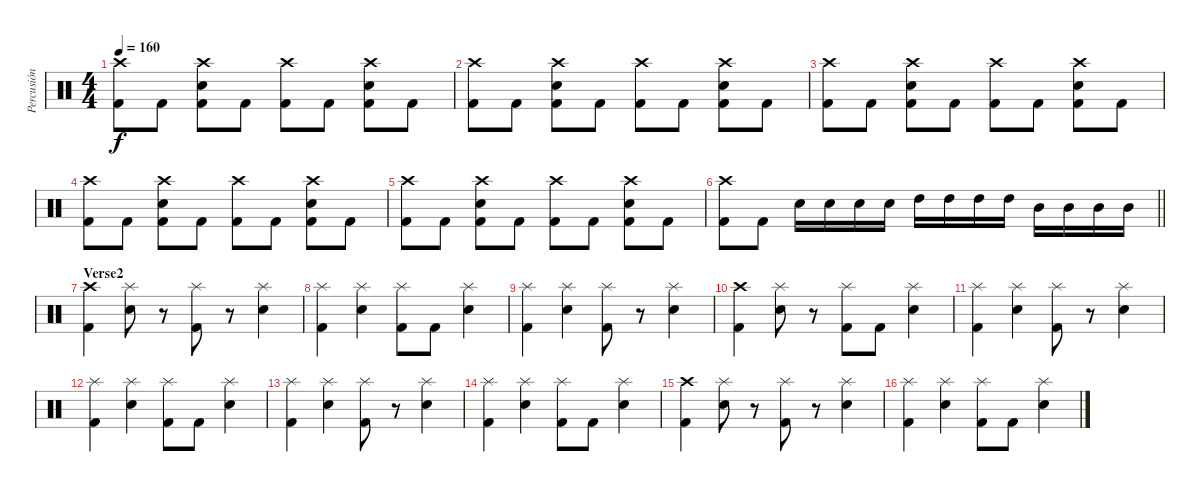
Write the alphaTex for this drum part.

\track ("Percusión" "Percusión") {instrument percussion}
\staff {score}
\articulation defaults
\ts (4 4)
\tempo 160
\clef neutral
\ks c
("Crash high (hit)" "Kick (hit) 2").8{dy f} "Kick (hit) 2".8 ("Crash high (hit)" "Electric Snare (hit)" "Kick (hit) 2").8 "Kick (hit) 2".8 ("Crash high (hit)" "Kick (hit) 2").8 "Kick (hit) 2".8 ("Crash high (hit)" "Electric Snare (hit)" "Kick (hit) 2").8 "Kick (hit) 2".8 |
("Crash high (hit)" "Kick (hit) 2").8 "Kick (hit) 2".8 ("Crash high (hit)" "Electric Snare (hit)" "Kick (hit) 2").8 "Kick (hit) 2".8 ("Crash high (hit)" "Kick (hit) 2").8 "Kick (hit) 2".8 ("Crash high (hit)" "Electric Snare (hit)" "Kick (hit) 2").8 "Kick (hit) 2".8 |
("Crash high (hit)" "Kick (hit) 2").8 "Kick (hit) 2".8 ("Crash high (hit)" "Electric Snare (hit)" "Kick (hit) 2").8 "Kick (hit) 2".8 ("Crash high (hit)" "Kick (hit) 2").8 "Kick (hit) 2".8 ("Crash high (hit)" "Electric Snare (hit)" "Kick (hit) 2").8 "Kick (hit) 2".8 |
("Crash high (hit)" "Kick (hit) 2").8 "Kick (hit) 2".8 ("Crash high (hit)" "Electric Snare (hit)" "Kick (hit) 2").8 "Kick (hit) 2".8 ("Crash high (hit)" "Kick (hit) 2").8 "Kick (hit) 2".8 ("Crash high (hit)" "Electric Snare (hit)" "Kick (hit) 2").8 "Kick (hit) 2".8 |
("Crash high (hit)" "Kick (hit) 2").8 "Kick (hit) 2".8 ("Crash high (hit)" "Electric Snare (hit)" "Kick (hit) 2").8 "Kick (hit) 2".8 ("Crash high (hit)" "Kick (hit) 2").8 "Kick (hit) 2".8 ("Crash high (hit)" "Electric Snare (hit)" "Kick (hit) 2").8 "Kick (hit) 2".8 |
\barLineRight lightlight
("Crash high (hit)" "Kick (hit) 2").8 "Kick (hit) 2".8 "Electric Snare (hit)".16 "Electric Snare (hit)".16 "Electric Snare (hit)".16 "Electric Snare (hit)".16 "High Tom (hit)".16 "High Tom (hit)".16 "High Tom (hit)".16 "High Tom (hit)".16 "Mid Tom (hit)".16 "Mid Tom (hit)".16 "Mid Tom (hit)".16 "Mid Tom (hit)".16 |
\section ("" "Verse2")
("Crash high (hit)" "Kick (hit) 2").4 ("Splash (hit)" "Electric Snare (hit)").8 r.8 ("Splash (hit)" "Kick (hit) 2").8 r.8 ("Splash (hit)" "Electric Snare (hit)").4 |
("Splash (hit)" "Kick (hit) 2").4 ("Splash (hit)" "Electric Snare (hit)").4 ("Splash (hit)" "Kick (hit) 2").8 "Kick (hit) 2".8 ("Splash (hit)" "Electric Snare (hit)").4 |
("Splash (hit)" "Kick (hit) 2").4 ("Splash (hit)" "Electric Snare (hit)").4 ("Splash (hit)" "Kick (hit) 2").8 r.8 ("Splash (hit)" "Electric Snare (hit)").4 |
("Crash high (hit)" "Kick (hit) 2").4 ("Splash (hit)" "Electric Snare (hit)").8 r.8 ("Splash (hit)" "Kick (hit) 2").8 "Kick (hit) 2".8 ("Splash (hit)" "Electric Snare (hit)").4 |
("Splash (hit)" "Kick (hit) 2").4 ("Splash (hit)" "Electric Snare (hit)").4 ("Splash (hit)" "Kick (hit) 2").8 r.8 ("Splash (hit)" "Electric Snare (hit)").4 |
("Splash (hit)" "Kick (hit) 2").4 ("Splash (hit)" "Electric Snare (hit)").4 ("Splash (hit)" "Kick (hit) 2").8 "Kick (hit) 2".8 ("Splash (hit)" "Electric Snare (hit)").4 |
("Splash (hit)" "Kick (hit) 2").4 ("Splash (hit)" "Electric Snare (hit)").4 ("Splash (hit)" "Kick (hit) 2").8 r.8 ("Splash (hit)" "Electric Snare (hit)").4 |
("Splash (hit)" "Kick (hit) 2").4 ("Splash (hit)" "Electric Snare (hit)").4 ("Splash (hit)" "Kick (hit) 2").8 "Kick (hit) 2".8 ("Splash (hit)" "Electric Snare (hit)").4 |
("Crash high (hit)" "Kick (hit) 2").4 ("Splash (hit)" "Electric Snare (hit)").8 r.8 ("Splash (hit)" "Kick (hit) 2").8 r.8 ("Splash (hit)" "Electric Snare (hit)").4 |
("Splash (hit)" "Kick (hit) 2").4 ("Splash (hit)" "Electric Snare (hit)").4 ("Splash (hit)" "Kick (hit) 2").8 "Kick (hit) 2".8 ("Splash (hit)" "Electric Snare (hit)").4
